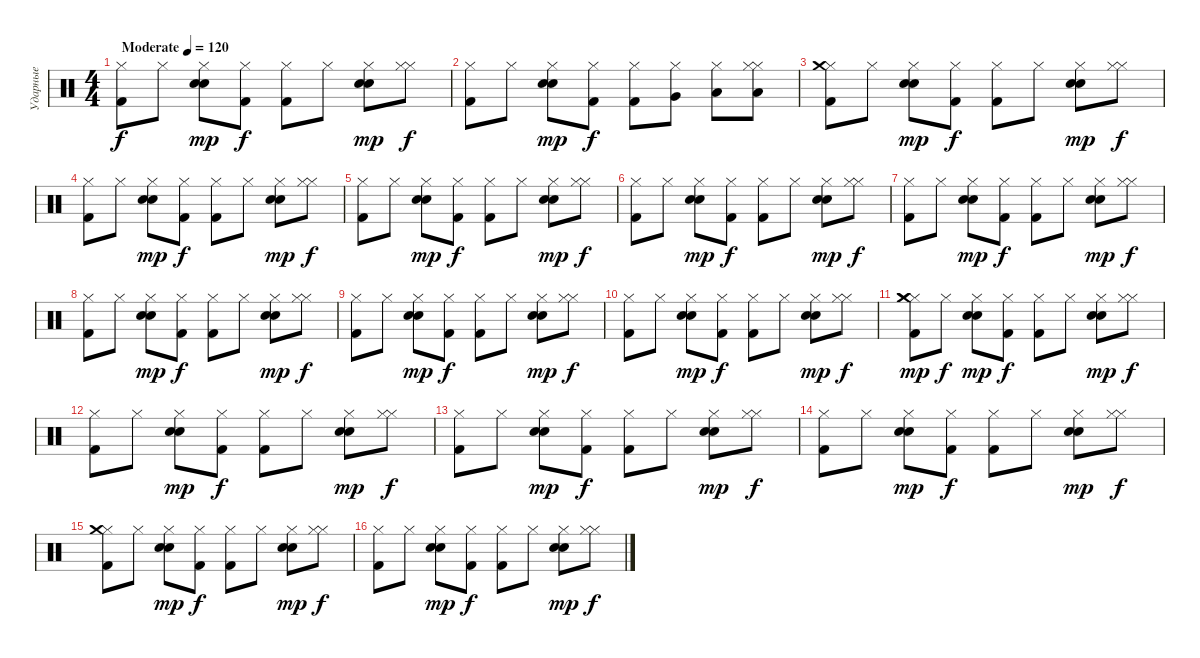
\track ("Ударные" "Ударные") {instrument percussion}
\staff {score}
\articulation defaults
\ts (4 4)
\tempo (120 "Moderate")
\clef neutral
\ks c
("Kick (hit) 2" "Hi-Hat (closed)").8{dy f} "Hi-Hat (closed)".8 ("Hand Clap (hit)" "Hi-Hat (closed)" "Electric Snare (hit)").8{dy mp} ("Kick (hit) 2" "Hi-Hat (closed)").8{dy f} ("Kick (hit) 2" "Hi-Hat (closed)").8 "Hi-Hat (closed)".8 ("Hand Clap (hit)" "Hi-Hat (closed)" "Electric Snare (hit)").8{dy mp} ("Hi-Hat (closed)" "Hi-Hat (closed)").8{dy f} |
("Kick (hit) 2" "Hi-Hat (closed)").8 "Hi-Hat (closed)".8 ("Hand Clap (hit)" "Hi-Hat (closed)" "Electric Snare (hit)").8{dy mp} ("Kick (hit) 2" "Hi-Hat (closed)").8{dy f} ("Kick (hit) 2" "Hi-Hat (closed)").8 ("Hi-Hat (closed)" "Very Low Tom (hit)").8 ("Low Floor Tom (hit)" "Hi-Hat (closed)").8 ("Hi-Hat (closed)" "Hi-Hat (closed)" "Low Tom (hit)").8 |
("Kick (hit) 2" "Hi-Hat (closed)" "Crash medium (hit)").8 "Hi-Hat (closed)".8 ("Hand Clap (hit)" "Hi-Hat (closed)" "Electric Snare (hit)").8{dy mp} ("Kick (hit) 2" "Hi-Hat (closed)").8{dy f} ("Kick (hit) 2" "Hi-Hat (closed)").8 "Hi-Hat (closed)".8 ("Hand Clap (hit)" "Hi-Hat (closed)" "Electric Snare (hit)").8{dy mp} ("Hi-Hat (closed)" "Hi-Hat (closed)").8{dy f} |
("Kick (hit) 2" "Hi-Hat (closed)").8 "Hi-Hat (closed)".8 ("Hand Clap (hit)" "Hi-Hat (closed)" "Electric Snare (hit)").8{dy mp} ("Kick (hit) 2" "Hi-Hat (closed)").8{dy f} ("Kick (hit) 2" "Hi-Hat (closed)").8 "Hi-Hat (closed)".8 ("Hand Clap (hit)" "Hi-Hat (closed)" "Electric Snare (hit)").8{dy mp} ("Hi-Hat (closed)" "Hi-Hat (closed)").8{dy f} |
("Kick (hit) 2" "Hi-Hat (closed)").8 "Hi-Hat (closed)".8 ("Hand Clap (hit)" "Hi-Hat (closed)" "Electric Snare (hit)").8{dy mp} ("Kick (hit) 2" "Hi-Hat (closed)").8{dy f} ("Kick (hit) 2" "Hi-Hat (closed)").8 "Hi-Hat (closed)".8 ("Hand Clap (hit)" "Hi-Hat (closed)" "Electric Snare (hit)").8{dy mp} ("Hi-Hat (closed)" "Hi-Hat (closed)").8{dy f} |
("Kick (hit) 2" "Hi-Hat (closed)").8 "Hi-Hat (closed)".8 ("Hand Clap (hit)" "Hi-Hat (closed)" "Electric Snare (hit)").8{dy mp} ("Kick (hit) 2" "Hi-Hat (closed)").8{dy f} ("Kick (hit) 2" "Hi-Hat (closed)").8 "Hi-Hat (closed)".8 ("Hand Clap (hit)" "Hi-Hat (closed)" "Electric Snare (hit)").8{dy mp} ("Hi-Hat (closed)" "Hi-Hat (closed)").8{dy f} |
("Kick (hit) 2" "Hi-Hat (closed)").8 "Hi-Hat (closed)".8 ("Hand Clap (hit)" "Hi-Hat (closed)" "Electric Snare (hit)").8{dy mp} ("Kick (hit) 2" "Hi-Hat (closed)").8{dy f} ("Kick (hit) 2" "Hi-Hat (closed)").8 "Hi-Hat (closed)".8 ("Hand Clap (hit)" "Hi-Hat (closed)" "Electric Snare (hit)").8{dy mp} ("Hi-Hat (closed)" "Hi-Hat (closed)").8{dy f} |
("Kick (hit) 2" "Hi-Hat (closed)").8 "Hi-Hat (closed)".8 ("Hand Clap (hit)" "Hi-Hat (closed)" "Electric Snare (hit)").8{dy mp} ("Kick (hit) 2" "Hi-Hat (closed)").8{dy f} ("Kick (hit) 2" "Hi-Hat (closed)").8 "Hi-Hat (closed)".8 ("Hand Clap (hit)" "Hi-Hat (closed)" "Electric Snare (hit)").8{dy mp} ("Hi-Hat (closed)" "Hi-Hat (closed)").8{dy f} |
("Kick (hit) 2" "Hi-Hat (closed)").8 "Hi-Hat (closed)".8 ("Hand Clap (hit)" "Hi-Hat (closed)" "Electric Snare (hit)").8{dy mp} ("Kick (hit) 2" "Hi-Hat (closed)").8{dy f} ("Kick (hit) 2" "Hi-Hat (closed)").8 "Hi-Hat (closed)".8 ("Hand Clap (hit)" "Hi-Hat (closed)" "Electric Snare (hit)").8{dy mp} ("Hi-Hat (closed)" "Hi-Hat (closed)").8{dy f} |
("Kick (hit) 2" "Hi-Hat (closed)").8 "Hi-Hat (closed)".8 ("Hand Clap (hit)" "Hi-Hat (closed)" "Electric Snare (hit)").8{dy mp} ("Kick (hit) 2" "Hi-Hat (closed)").8{dy f} ("Kick (hit) 2" "Hi-Hat (closed)").8 "Hi-Hat (closed)".8 ("Hand Clap (hit)" "Hi-Hat (closed)" "Electric Snare (hit)").8{dy mp} ("Hi-Hat (closed)" "Hi-Hat (closed)").8{dy f} |
("Kick (hit) 2" "Hi-Hat (closed)" "Crash medium (hit)" "Crash medium (hit)").8{dy mp} "Hi-Hat (closed)".8{dy f} ("Hand Clap (hit)" "Hi-Hat (closed)" "Electric Snare (hit)").8{dy mp} ("Kick (hit) 2" "Hi-Hat (closed)").8{dy f} ("Kick (hit) 2" "Hi-Hat (closed)").8 "Hi-Hat (closed)".8 ("Hand Clap (hit)" "Hi-Hat (closed)" "Electric Snare (hit)").8{dy mp} ("Hi-Hat (closed)" "Hi-Hat (closed)").8{dy f} |
("Kick (hit) 2" "Hi-Hat (closed)").8 "Hi-Hat (closed)".8 ("Hand Clap (hit)" "Hi-Hat (closed)" "Electric Snare (hit)").8{dy mp} ("Kick (hit) 2" "Hi-Hat (closed)").8{dy f} ("Kick (hit) 2" "Hi-Hat (closed)").8 "Hi-Hat (closed)".8 ("Hand Clap (hit)" "Hi-Hat (closed)" "Electric Snare (hit)").8{dy mp} ("Hi-Hat (closed)" "Hi-Hat (closed)").8{dy f} |
("Kick (hit) 2" "Hi-Hat (closed)").8 "Hi-Hat (closed)".8 ("Hand Clap (hit)" "Hi-Hat (closed)" "Electric Snare (hit)").8{dy mp} ("Kick (hit) 2" "Hi-Hat (closed)").8{dy f} ("Kick (hit) 2" "Hi-Hat (closed)").8 "Hi-Hat (closed)".8 ("Hand Clap (hit)" "Hi-Hat (closed)" "Electric Snare (hit)").8{dy mp} ("Hi-Hat (closed)" "Hi-Hat (closed)").8{dy f} |
("Kick (hit) 2" "Hi-Hat (closed)").8 "Hi-Hat (closed)".8 ("Hand Clap (hit)" "Hi-Hat (closed)" "Electric Snare (hit)").8{dy mp} ("Kick (hit) 2" "Hi-Hat (closed)").8{dy f} ("Kick (hit) 2" "Hi-Hat (closed)").8 "Hi-Hat (closed)".8 ("Hand Clap (hit)" "Hi-Hat (closed)" "Electric Snare (hit)").8{dy mp} ("Hi-Hat (closed)" "Hi-Hat (closed)").8{dy f} |
("Kick (hit) 2" "Hi-Hat (closed)" "Crash medium (hit)").8 "Hi-Hat (closed)".8 ("Hand Clap (hit)" "Hi-Hat (closed)" "Electric Snare (hit)").8{dy mp} ("Kick (hit) 2" "Hi-Hat (closed)").8{dy f} ("Kick (hit) 2" "Hi-Hat (closed)").8 "Hi-Hat (closed)".8 ("Hand Clap (hit)" "Hi-Hat (closed)" "Electric Snare (hit)").8{dy mp} ("Hi-Hat (closed)" "Hi-Hat (closed)").8{dy f} |
("Kick (hit) 2" "Hi-Hat (closed)").8 "Hi-Hat (closed)".8 ("Hand Clap (hit)" "Hi-Hat (closed)" "Electric Snare (hit)").8{dy mp} ("Kick (hit) 2" "Hi-Hat (closed)").8{dy f} ("Kick (hit) 2" "Hi-Hat (closed)").8 "Hi-Hat (closed)".8 ("Hand Clap (hit)" "Hi-Hat (closed)" "Electric Snare (hit)").8{dy mp} ("Hi-Hat (closed)" "Hi-Hat (closed)").8{dy f}
